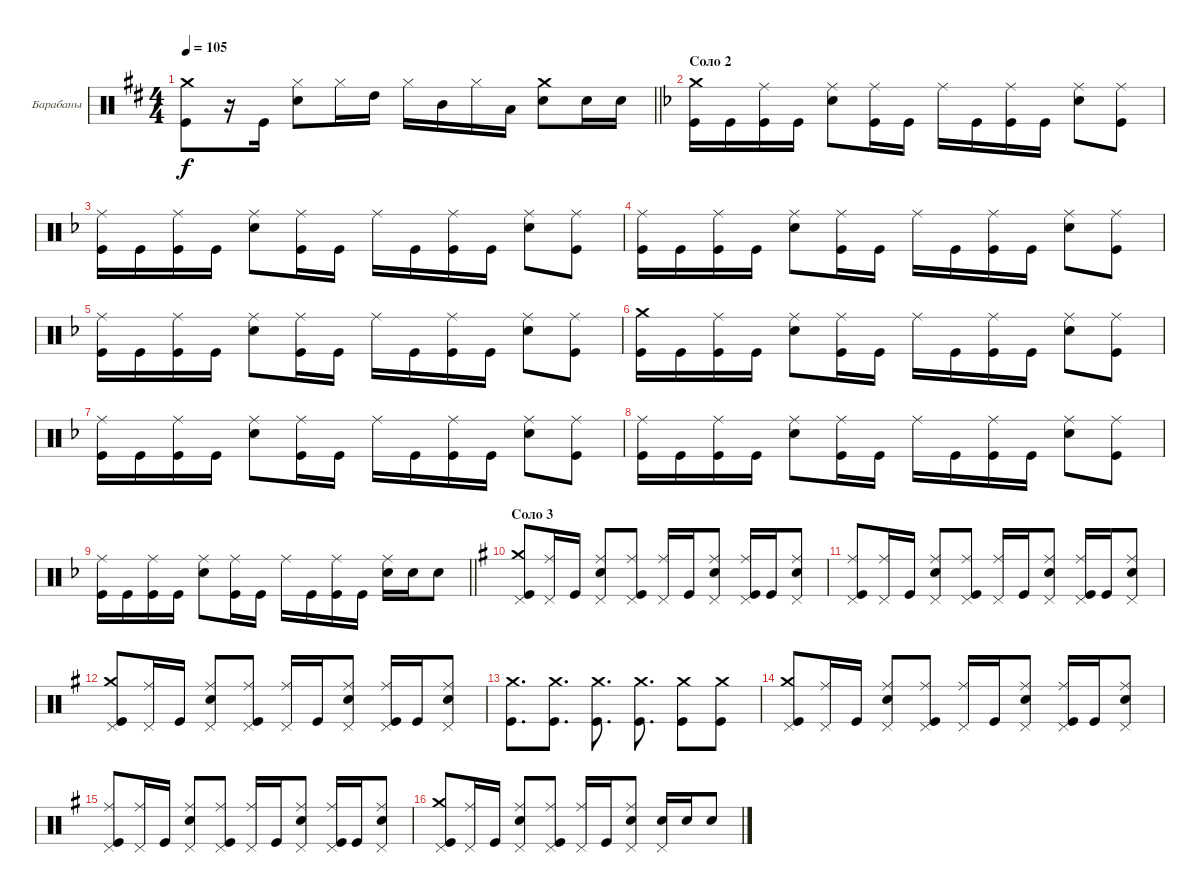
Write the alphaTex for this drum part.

\bracketExtendMode groupsimilarinstruments
\firstSystemTrackNameMode fullname
\otherSystemsTrackNameMode fullname
\firstSystemTrackNameOrientation horizontal
\otherSystemsTrackNameOrientation horizontal
\chordDiagramsInScore
\track ("Барабаны" "Drums") {instrument percussion}
\staff {score}
\articulation defaults
\ts (4 4)
\tempo 105
\clef neutral
\barLineRight lightlight
\ks bminor
("Kick (hit)" "Crash medium (hit)").8{dy f} r.16 "Kick (hit)".16 ("Hi-Hat (closed)" "Snare (hit) 2").8 "Hi-Hat (closed)".16 "High Tom (hit)".16 "Hi-Hat (closed)".16 "Mid Tom (hit)".16 "Hi-Hat (closed)".16 "Low Tom (hit)".16 ("Snare (hit) 2" "Crash medium (hit)").8 "Snare (hit) 2".16 "Snare (hit) 2".16 |
\section ("" "Соло 2")
\ks dminor
("Kick (hit)" "Crash medium (hit)").16 "Kick (hit)".16 ("Kick (hit)" "Ride (middle)").16 "Kick (hit)".16 ("Snare (hit) 2" "Ride (middle)").8 ("Kick (hit)" "Ride (middle)").16 "Kick (hit)".16 "Ride (middle)".16 "Kick (hit)".16 ("Kick (hit)" "Ride (middle)").16 "Kick (hit)".16 ("Snare (hit) 2" "Ride (middle)").8 ("Kick (hit)" "Ride (middle)").8 |
("Kick (hit)" "Ride (middle)").16 "Kick (hit)".16 ("Kick (hit)" "Ride (middle)").16 "Kick (hit)".16 ("Snare (hit) 2" "Ride (middle)").8 ("Kick (hit)" "Ride (middle)").16 "Kick (hit)".16 "Ride (middle)".16 "Kick (hit)".16 ("Kick (hit)" "Ride (middle)").16 "Kick (hit)".16 ("Snare (hit) 2" "Ride (middle)").8 ("Kick (hit)" "Ride (middle)").8 |
("Kick (hit)" "Ride (middle)").16 "Kick (hit)".16 ("Kick (hit)" "Ride (middle)").16 "Kick (hit)".16 ("Snare (hit) 2" "Ride (middle)").8 ("Kick (hit)" "Ride (middle)").16 "Kick (hit)".16 "Ride (middle)".16 "Kick (hit)".16 ("Kick (hit)" "Ride (middle)").16 "Kick (hit)".16 ("Snare (hit) 2" "Ride (middle)").8 ("Kick (hit)" "Ride (middle)").8 |
("Kick (hit)" "Ride (middle)").16 "Kick (hit)".16 ("Kick (hit)" "Ride (middle)").16 "Kick (hit)".16 ("Snare (hit) 2" "Ride (middle)").8 ("Kick (hit)" "Ride (middle)").16 "Kick (hit)".16 "Ride (middle)".16 "Kick (hit)".16 ("Kick (hit)" "Ride (middle)").16 "Kick (hit)".16 ("Snare (hit) 2" "Ride (middle)").8 ("Kick (hit)" "Ride (middle)").8 |
("Kick (hit)" "Crash medium (hit)").16 "Kick (hit)".16 ("Kick (hit)" "Ride (middle)").16 "Kick (hit)".16 ("Snare (hit) 2" "Ride (middle)").8 ("Kick (hit)" "Ride (middle)").16 "Kick (hit)".16 "Ride (middle)".16 "Kick (hit)".16 ("Kick (hit)" "Ride (middle)").16 "Kick (hit)".16 ("Snare (hit) 2" "Ride (middle)").8 ("Kick (hit)" "Ride (middle)").8 |
("Kick (hit)" "Ride (middle)").16 "Kick (hit)".16 ("Kick (hit)" "Ride (middle)").16 "Kick (hit)".16 ("Snare (hit) 2" "Ride (middle)").8 ("Kick (hit)" "Ride (middle)").16 "Kick (hit)".16 "Ride (middle)".16 "Kick (hit)".16 ("Kick (hit)" "Ride (middle)").16 "Kick (hit)".16 ("Snare (hit) 2" "Ride (middle)").8 ("Kick (hit)" "Ride (middle)").8 |
("Kick (hit)" "Ride (middle)").16 "Kick (hit)".16 ("Kick (hit)" "Ride (middle)").16 "Kick (hit)".16 ("Snare (hit) 2" "Ride (middle)").8 ("Kick (hit)" "Ride (middle)").16 "Kick (hit)".16 "Ride (middle)".16 "Kick (hit)".16 ("Kick (hit)" "Ride (middle)").16 "Kick (hit)".16 ("Snare (hit) 2" "Ride (middle)").8 ("Kick (hit)" "Ride (middle)").8 |
\barLineRight lightlight
("Kick (hit)" "Ride (middle)").16 "Kick (hit)".16 ("Kick (hit)" "Ride (middle)").16 "Kick (hit)".16 ("Snare (hit) 2" "Ride (middle)").8 ("Kick (hit)" "Ride (middle)").16 "Kick (hit)".16 "Ride (middle)".16 "Kick (hit)".16 ("Kick (hit)" "Ride (middle)").16 "Kick (hit)".16 ("Snare (hit) 2" "Ride (middle)").16 "Snare (hit) 2".16 "Snare (hit) 2".8 |
\section ("" "Соло 3")
\ks eminor
("Kick (hit)" "Pedal Hi-Hat (hit)" "Crash medium (hit)").8 ("Pedal Hi-Hat (hit)" "Ride (middle)").16 "Kick (hit)".16 ("Snare (hit) 2" "Pedal Hi-Hat (hit)" "Ride (middle)").8 ("Pedal Hi-Hat (hit)" "Kick (hit)" "Ride (middle)").8 ("Pedal Hi-Hat (hit)" "Ride (middle)").16 "Kick (hit)".16 ("Snare (hit) 2" "Pedal Hi-Hat (hit)" "Ride (middle)").8 ("Kick (hit)" "Pedal Hi-Hat (hit)" "Ride (middle)").16 "Kick (hit)".16 ("Snare (hit) 2" "Pedal Hi-Hat (hit)" "Ride (middle)").8 |
("Kick (hit)" "Pedal Hi-Hat (hit)" "Ride (middle)").8 ("Pedal Hi-Hat (hit)" "Ride (middle)").16 "Kick (hit)".16 ("Snare (hit) 2" "Pedal Hi-Hat (hit)" "Ride (middle)").8 ("Pedal Hi-Hat (hit)" "Kick (hit)" "Ride (middle)").8 ("Pedal Hi-Hat (hit)" "Ride (middle)").16 "Kick (hit)".16 ("Snare (hit) 2" "Pedal Hi-Hat (hit)" "Ride (middle)").8 ("Kick (hit)" "Pedal Hi-Hat (hit)" "Ride (middle)").16 "Kick (hit)".16 ("Snare (hit) 2" "Pedal Hi-Hat (hit)" "Ride (middle)").8 |
("Kick (hit)" "Pedal Hi-Hat (hit)" "Crash medium (hit)").8 ("Pedal Hi-Hat (hit)" "Ride (middle)").16 "Kick (hit)".16 ("Snare (hit) 2" "Pedal Hi-Hat (hit)" "Ride (middle)").8 ("Pedal Hi-Hat (hit)" "Kick (hit)" "Ride (middle)").8 ("Pedal Hi-Hat (hit)" "Ride (middle)").16 "Kick (hit)".16 ("Snare (hit) 2" "Pedal Hi-Hat (hit)" "Ride (middle)").8 ("Kick (hit)" "Pedal Hi-Hat (hit)" "Ride (middle)").16 "Kick (hit)".16 ("Snare (hit) 2" "Pedal Hi-Hat (hit)" "Ride (middle)").8 |
("Kick (hit)" "Crash medium (hit)").8{d} ("Kick (hit)" "Crash medium (hit)").8{d} ("Kick (hit)" "Crash medium (hit)").8{d} ("Kick (hit)" "Crash medium (hit)").8{d} ("Kick (hit)" "Crash medium (hit)").8 ("Kick (hit)" "Crash medium (hit)").8 |
("Kick (hit)" "Pedal Hi-Hat (hit)" "Crash medium (hit)").8 ("Pedal Hi-Hat (hit)" "Ride (middle)").16 "Kick (hit)".16 ("Snare (hit) 2" "Pedal Hi-Hat (hit)" "Ride (middle)").8 ("Pedal Hi-Hat (hit)" "Kick (hit)" "Ride (middle)").8 ("Pedal Hi-Hat (hit)" "Ride (middle)").16 "Kick (hit)".16 ("Snare (hit) 2" "Pedal Hi-Hat (hit)" "Ride (middle)").8 ("Kick (hit)" "Pedal Hi-Hat (hit)" "Ride (middle)").16 "Kick (hit)".16 ("Snare (hit) 2" "Pedal Hi-Hat (hit)" "Ride (middle)").8 |
("Kick (hit)" "Pedal Hi-Hat (hit)" "Ride (middle)").8 ("Pedal Hi-Hat (hit)" "Ride (middle)").16 "Kick (hit)".16 ("Snare (hit) 2" "Pedal Hi-Hat (hit)" "Ride (middle)").8 ("Pedal Hi-Hat (hit)" "Kick (hit)" "Ride (middle)").8 ("Pedal Hi-Hat (hit)" "Ride (middle)").16 "Kick (hit)".16 ("Snare (hit) 2" "Pedal Hi-Hat (hit)" "Ride (middle)").8 ("Kick (hit)" "Pedal Hi-Hat (hit)" "Ride (middle)").16 "Kick (hit)".16 ("Snare (hit) 2" "Pedal Hi-Hat (hit)" "Ride (middle)").8 |
("Kick (hit)" "Pedal Hi-Hat (hit)" "Crash medium (hit)").8 ("Pedal Hi-Hat (hit)" "Ride (middle)").16 "Kick (hit)".16 ("Snare (hit) 2" "Pedal Hi-Hat (hit)" "Ride (middle)").8 ("Pedal Hi-Hat (hit)" "Kick (hit)" "Ride (middle)").8 ("Pedal Hi-Hat (hit)" "Ride (middle)").16 "Kick (hit)".16 ("Snare (hit) 2" "Pedal Hi-Hat (hit)" "Ride (middle)").8 ("Snare (hit) 2" "Pedal Hi-Hat (hit)").16 "Snare (hit) 2".16 "Snare (hit) 2".8
